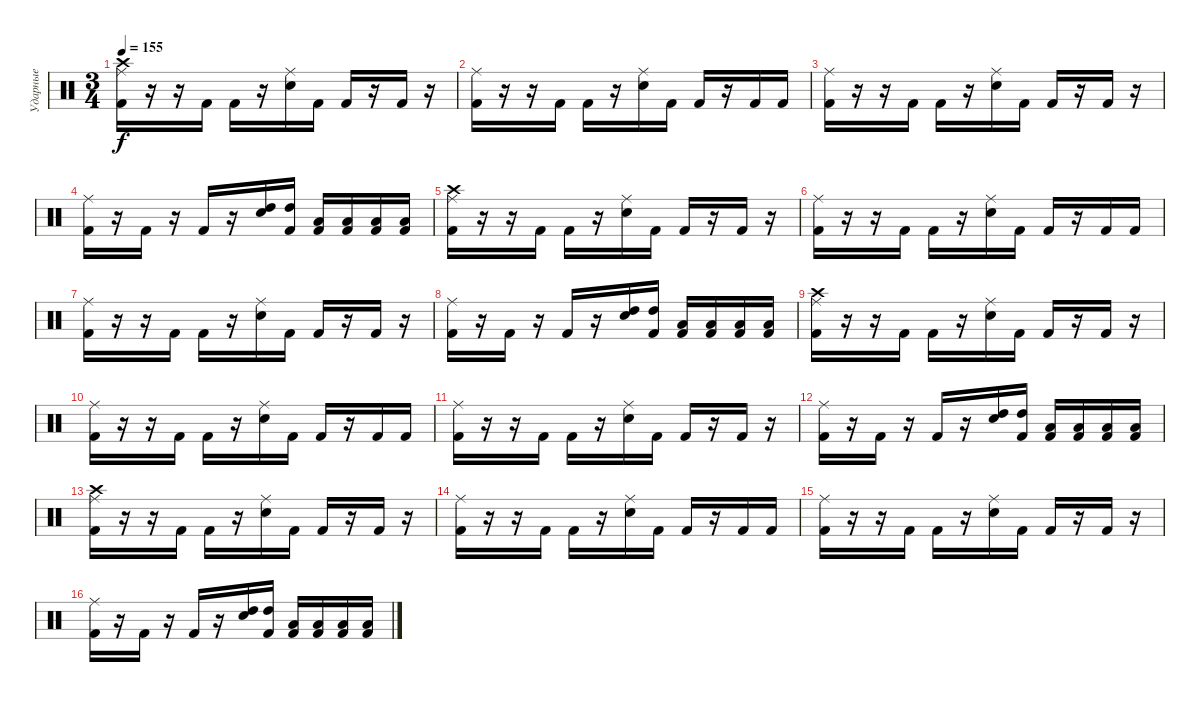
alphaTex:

\track ("Ударные" "Ударные") {instrument percussion}
\staff {score}
\articulation defaults
\ts (3 4)
\tempo 155
\clef neutral
\ks c
("Ride (middle)" "Crash high (hit)" "Kick (hit) 2").16{dy f} r.16 r.16 "Kick (hit) 2".16 "Kick (hit) 2".16 r.16 ("Ride (middle)" "Snare (hit) 2").16 "Kick (hit) 2".16 "Kick (hit) 2".16 r.16 "Kick (hit) 2".16 r.16 |
("Ride (middle)" "Kick (hit) 2").16 r.16 r.16 "Kick (hit) 2".16 "Kick (hit) 2".16 r.16 ("Ride (middle)" "Snare (hit) 2").16 "Kick (hit) 2".16 "Kick (hit) 2".16 r.16 "Kick (hit) 2".16 "Kick (hit) 2".16 |
("Ride (middle)" "Kick (hit) 2").16 r.16 r.16 "Kick (hit) 2".16 "Kick (hit) 2".16 r.16 ("Ride (middle)" "Snare (hit) 2").16 "Kick (hit) 2".16 "Kick (hit) 2".16 r.16 "Kick (hit) 2".16 r.16 |
("Ride (middle)" "Kick (hit) 2").16 r.16 "Kick (hit) 2".16 r.16 "Kick (hit) 2".16 r.16 ("High Tom (hit)" "Snare (hit) 2").16 ("High Tom (hit)" "Kick (hit) 2").16 ("Low Tom (hit)" "Kick (hit) 2").16 ("Low Floor Tom (hit)" "Kick (hit) 2").16 ("Low Floor Tom (hit)" "Kick (hit) 2").16 ("Low Floor Tom (hit)" "Kick (hit) 2").16 |
("Ride (middle)" "Crash high (hit)" "Kick (hit) 2").16 r.16 r.16 "Kick (hit) 2".16 "Kick (hit) 2".16 r.16 ("Ride (middle)" "Snare (hit) 2").16 "Kick (hit) 2".16 "Kick (hit) 2".16 r.16 "Kick (hit) 2".16 r.16 |
("Ride (middle)" "Kick (hit) 2").16 r.16 r.16 "Kick (hit) 2".16 "Kick (hit) 2".16 r.16 ("Ride (middle)" "Snare (hit) 2").16 "Kick (hit) 2".16 "Kick (hit) 2".16 r.16 "Kick (hit) 2".16 "Kick (hit) 2".16 |
("Ride (middle)" "Kick (hit) 2").16 r.16 r.16 "Kick (hit) 2".16 "Kick (hit) 2".16 r.16 ("Ride (middle)" "Snare (hit) 2").16 "Kick (hit) 2".16 "Kick (hit) 2".16 r.16 "Kick (hit) 2".16 r.16 |
("Ride (middle)" "Kick (hit) 2").16 r.16 "Kick (hit) 2".16 r.16 "Kick (hit) 2".16 r.16 ("High Tom (hit)" "Snare (hit) 2").16 ("High Tom (hit)" "Kick (hit) 2").16 ("Low Tom (hit)" "Kick (hit) 2").16 ("Low Floor Tom (hit)" "Kick (hit) 2").16 ("Low Floor Tom (hit)" "Kick (hit) 2").16 ("Low Floor Tom (hit)" "Kick (hit) 2").16 |
("Ride (middle)" "Crash high (hit)" "Kick (hit) 2").16 r.16 r.16 "Kick (hit) 2".16 "Kick (hit) 2".16 r.16 ("Ride (middle)" "Snare (hit) 2").16 "Kick (hit) 2".16 "Kick (hit) 2".16 r.16 "Kick (hit) 2".16 r.16 |
("Ride (middle)" "Kick (hit) 2").16 r.16 r.16 "Kick (hit) 2".16 "Kick (hit) 2".16 r.16 ("Ride (middle)" "Snare (hit) 2").16 "Kick (hit) 2".16 "Kick (hit) 2".16 r.16 "Kick (hit) 2".16 "Kick (hit) 2".16 |
("Ride (middle)" "Kick (hit) 2").16 r.16 r.16 "Kick (hit) 2".16 "Kick (hit) 2".16 r.16 ("Ride (middle)" "Snare (hit) 2").16 "Kick (hit) 2".16 "Kick (hit) 2".16 r.16 "Kick (hit) 2".16 r.16 |
("Ride (middle)" "Kick (hit) 2").16 r.16 "Kick (hit) 2".16 r.16 "Kick (hit) 2".16 r.16 ("High Tom (hit)" "Snare (hit) 2").16 ("High Tom (hit)" "Kick (hit) 2").16 ("Low Tom (hit)" "Kick (hit) 2").16 ("Low Floor Tom (hit)" "Kick (hit) 2").16 ("Low Floor Tom (hit)" "Kick (hit) 2").16 ("Low Floor Tom (hit)" "Kick (hit) 2").16 |
("Ride (middle)" "Crash high (hit)" "Kick (hit) 2").16 r.16 r.16 "Kick (hit) 2".16 "Kick (hit) 2".16 r.16 ("Ride (middle)" "Snare (hit) 2").16 "Kick (hit) 2".16 "Kick (hit) 2".16 r.16 "Kick (hit) 2".16 r.16 |
("Ride (middle)" "Kick (hit) 2").16 r.16 r.16 "Kick (hit) 2".16 "Kick (hit) 2".16 r.16 ("Ride (middle)" "Snare (hit) 2").16 "Kick (hit) 2".16 "Kick (hit) 2".16 r.16 "Kick (hit) 2".16 "Kick (hit) 2".16 |
("Ride (middle)" "Kick (hit) 2").16 r.16 r.16 "Kick (hit) 2".16 "Kick (hit) 2".16 r.16 ("Ride (middle)" "Snare (hit) 2").16 "Kick (hit) 2".16 "Kick (hit) 2".16 r.16 "Kick (hit) 2".16 r.16 |
("Ride (middle)" "Kick (hit) 2").16 r.16 "Kick (hit) 2".16 r.16 "Kick (hit) 2".16 r.16 ("High Tom (hit)" "Snare (hit) 2").16 ("High Tom (hit)" "Kick (hit) 2").16 ("Low Tom (hit)" "Kick (hit) 2").16 ("Low Floor Tom (hit)" "Kick (hit) 2").16 ("Low Floor Tom (hit)" "Kick (hit) 2").16 ("Low Floor Tom (hit)" "Kick (hit) 2").16
